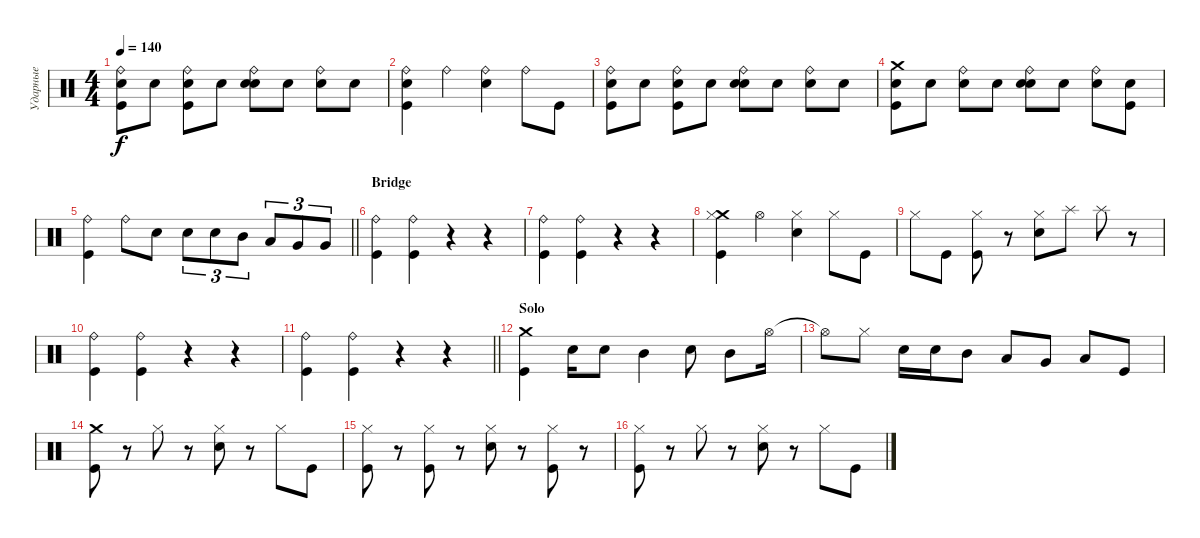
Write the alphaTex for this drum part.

\track ("Ударные" "Ударные") {instrument percussion}
\staff {score}
\articulation defaults
\ts (4 4)
\tempo 140
\clef neutral
\ks c
("Snare (hit)" "Kick (hit)" "Ride (bell)").8{dy f} "Snare (hit)".8 ("Snare (hit)" "Kick (hit)" "Ride (bell)").8 "Snare (hit)".8 ("Snare (hit)" "Snare (hit) 2" "Ride (bell)").8 "Snare (hit)".8 ("Snare (hit)" "Ride (bell)").8 "Snare (hit)".8 |
("Snare (hit)" "Kick (hit)" "Ride (bell)").4 "Ride (bell)".4 ("Snare (hit) 2" "Ride (bell)").4 "Ride (bell)".8 "Kick (hit)".8 |
("Snare (hit)" "Kick (hit)" "Ride (bell)").8 "Snare (hit)".8 ("Snare (hit)" "Kick (hit)" "Ride (bell)").8 "Snare (hit)".8 ("Snare (hit)" "Snare (hit) 2" "Ride (bell)").8 "Snare (hit)".8 ("Snare (hit)" "Ride (bell)").8 "Snare (hit)".8 |
("Snare (hit)" "Crash medium (hit)" "Kick (hit)").8 "Snare (hit)".8 ("Snare (hit)" "Ride (bell)").8 "Snare (hit)".8 ("Snare (hit)" "Snare (hit) 2" "Ride (bell)").8 "Snare (hit)".8 ("Snare (hit)" "Ride (bell)").8 ("Snare (hit)" "Kick (hit)").8 |
\barLineRight lightlight
("Ride (bell)" "Kick (hit)").4 "Ride (bell)".8 "Snare (hit) 2".8 "Snare (hit) 2".8{tu (3 2)} "Snare (hit) 2".8{tu (3 2)} "Mid Tom (hit)".8{tu (3 2)} "Low Tom (hit)".8{tu (3 2)} "Very Low Tom (hit)".8{tu (3 2)} "Very Low Tom (hit)".8{tu (3 2)} |
\section ("" "Bridge")
("Ride (bell)" "Kick (hit)").4 ("Ride (bell)" "Kick (hit)").4 r.4 r.4 |
("Ride (bell)" "Kick (hit)").4 ("Ride (bell)" "Kick (hit)").4 r.4 r.4 |
("Crash medium (hit)" "Kick (hit)" "Hi-Hat (closed)").4 "Hi-Hat (open)".4 ("Snare (hit) 2" "Hi-Hat (closed)").4 "Hi-Hat (closed)".8 "Kick (hit)".8 |
"Hi-Hat (closed)".8 "Kick (hit)".8 ("Kick (hit)" "Hi-Hat (closed)").8 r.8 ("Snare (hit) 2" "Hi-Hat (closed)").8 "Splash (hit)".8 "Splash (hit)".8 r.8 |
("Ride (bell)" "Kick (hit)").4 ("Ride (bell)" "Kick (hit)").4 r.4 r.4 |
\barLineRight lightlight
("Ride (bell)" "Kick (hit)").4 ("Ride (bell)" "Kick (hit)").4 r.4 r.4 |
\section ("" "Solo")
("Crash medium (hit)" "Kick (hit)").4 "Snare (hit) 2".16 "Snare (hit) 2".8 "Mid Tom (hit)".4 "Snare (hit) 2".8 "Mid Tom (hit)".8 "Hi-Hat (open)".16 |
"Hi-Hat (open)"{t}.8 "Hi-Hat (closed)".8 "Snare (hit) 2".16 "Snare (hit) 2".16 "Mid Tom (hit)".8 "Low Tom (hit)".8 "Very Low Tom (hit)".8 "Low Floor Tom (hit)".8 "Kick (hit)".8 |
("Kick (hit)" "Crash medium (hit)").8 r.8 "Hi-Hat (closed)".8 r.8 ("Snare (hit) 2" "Hi-Hat (closed)").8 r.8 "Hi-Hat (closed)".8 "Kick (hit)".8 |
("Kick (hit)" "Hi-Hat (closed)").8 r.8 ("Kick (hit)" "Hi-Hat (closed)").8 r.8 ("Snare (hit) 2" "Hi-Hat (closed)").8 r.8 ("Kick (hit)" "Hi-Hat (closed)").8 r.8 |
("Kick (hit)" "Hi-Hat (closed)").8 r.8 "Hi-Hat (closed)".8 r.8 ("Snare (hit) 2" "Hi-Hat (closed)").8 r.8 "Hi-Hat (closed)".8 "Kick (hit)".8
